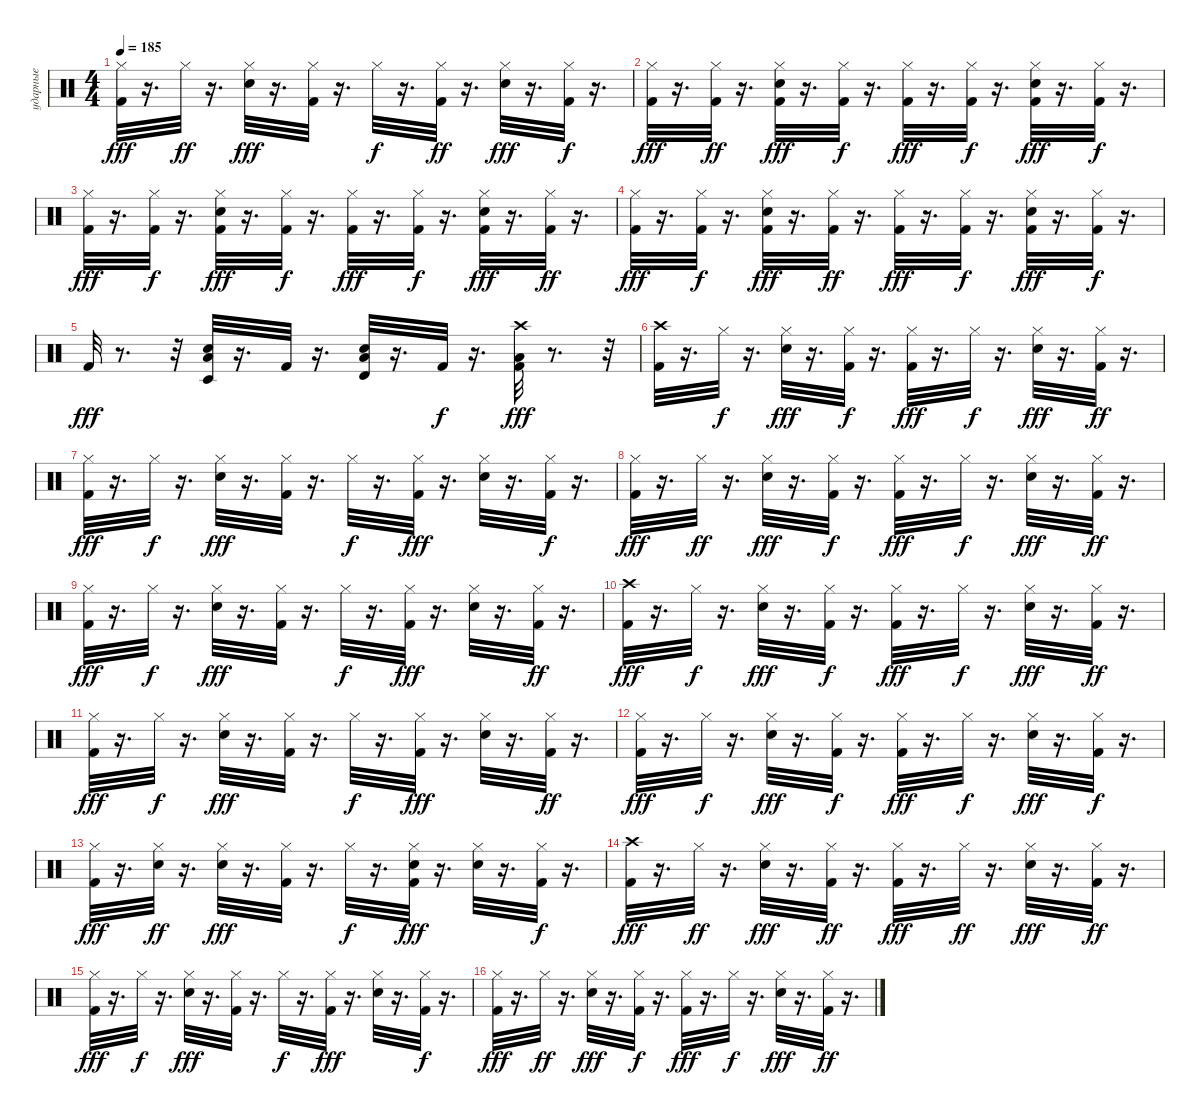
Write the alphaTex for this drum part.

\track ("ударные" "ударные") {instrument percussion}
\staff {score}
\articulation defaults
\ts (4 4)
\tempo 185
\clef neutral
\ks c
("Hi-Hat (closed)" "Kick (hit) 2").32{dy fff} r.16{d} "Hi-Hat (closed)".32{dy ff} r.16{d} ("Hi-Hat (closed)" "Electric Snare (hit)").32{dy fff} r.16{d} ("Hi-Hat (closed)" "Kick (hit) 2").32 r.16{d} "Hi-Hat (closed)".32{dy f} r.16{d} ("Kick (hit) 2" "Hi-Hat (closed)").32{dy ff} r.16{d} ("Hi-Hat (closed)" "Electric Snare (hit)").32{dy fff} r.16{d} ("Hi-Hat (closed)" "Kick (hit) 2").32{dy f} r.16{d} |
("Hi-Hat (closed)" "Kick (hit) 2").32{dy fff} r.16{d} ("Kick (hit) 2" "Hi-Hat (closed)").32{dy ff} r.16{d} ("Kick (hit) 2" "Hi-Hat (closed)" "Electric Snare (hit)").32{dy fff} r.16{d} ("Kick (hit) 2" "Hi-Hat (closed)").32{dy f} r.16{d} ("Hi-Hat (closed)" "Kick (hit) 2").32{dy fff} r.16{d} ("Kick (hit) 2" "Hi-Hat (closed)").32{dy f} r.16{d} ("Kick (hit) 2" "Hi-Hat (closed)" "Electric Snare (hit)").32{dy fff} r.16{d} ("Hi-Hat (closed)" "Kick (hit) 2").32{dy f} r.16{d} |
("Hi-Hat (closed)" "Kick (hit) 2").32{dy fff} r.16{d} ("Kick (hit) 2" "Hi-Hat (closed)").32{dy f} r.16{d} ("Kick (hit) 2" "Hi-Hat (closed)" "Electric Snare (hit)").32{dy fff} r.16{d} ("Kick (hit) 2" "Hi-Hat (closed)").32{dy f} r.16{d} ("Hi-Hat (closed)" "Kick (hit) 2").32{dy fff} r.16{d} ("Kick (hit) 2" "Hi-Hat (closed)").32{dy f} r.16{d} ("Kick (hit) 2" "Hi-Hat (closed)" "Electric Snare (hit)").32{dy fff} r.16{d} ("Hi-Hat (closed)" "Kick (hit) 2").32{dy ff} r.16{d} |
("Hi-Hat (closed)" "Kick (hit) 2").32{dy fff} r.16{d} ("Kick (hit) 2" "Hi-Hat (closed)").32{dy f} r.16{d} ("Kick (hit) 2" "Hi-Hat (closed)" "Electric Snare (hit)").32{dy fff} r.16{d} ("Kick (hit) 2" "Hi-Hat (closed)").32{dy ff} r.16{d} ("Hi-Hat (closed)" "Kick (hit) 2").32{dy fff} r.16{d} ("Kick (hit) 2" "Hi-Hat (closed)").32{dy f} r.16{d} ("Kick (hit) 2" "Hi-Hat (closed)" "Electric Snare (hit)").32{dy fff} r.16{d} ("Hi-Hat (closed)" "Kick (hit) 2").32{dy f} r.16{d} |
"Kick (hit) 2".32{dy fff} r.8{d} r.32 ("Timbale low (hit)" "Low Floor Tom (hit)" "Electric Snare (hit)").32 r.16{d} "Kick (hit) 2".32 r.16{d} ("Timbale high (hit)" "Low Floor Tom (hit)" "Electric Snare (hit)").32 r.16{d} "Kick (hit) 2".32{dy f} r.16{d} ("Low Floor Tom (hit)" "Crash high (hit)" "Kick (hit) 2").32{dy fff} r.8{d} r.32 |
("Crash high (hit)" "Kick (hit) 2").32 r.16{d} "Hi-Hat (closed)".32{dy f} r.16{d} ("Hi-Hat (closed)" "Electric Snare (hit)").32{dy fff} r.16{d} ("Hi-Hat (closed)" "Kick (hit) 2").32{dy f} r.16{d} ("Hi-Hat (closed)" "Kick (hit) 2").32{dy fff} r.16{d} "Hi-Hat (closed)".32{dy f} r.16{d} ("Hi-Hat (closed)" "Electric Snare (hit)").32{dy fff} r.16{d} ("Hi-Hat (closed)" "Kick (hit) 2").32{dy ff} r.16{d} |
("Hi-Hat (closed)" "Kick (hit) 2").32{dy fff} r.16{d} "Hi-Hat (closed)".32{dy f} r.16{d} ("Hi-Hat (closed)" "Electric Snare (hit)").32{dy fff} r.16{d} ("Hi-Hat (closed)" "Kick (hit) 2").32 r.16{d} "Hi-Hat (closed)".32{dy f} r.16{d} ("Kick (hit) 2" "Hi-Hat (closed)").32{dy fff} r.16{d} ("Hi-Hat (closed)" "Electric Snare (hit)").32 r.16{d} ("Hi-Hat (closed)" "Kick (hit) 2").32{dy f} r.16{d} |
("Hi-Hat (closed)" "Kick (hit) 2").32{dy fff} r.16{d} "Hi-Hat (closed)".32{dy ff} r.16{d} ("Hi-Hat (closed)" "Electric Snare (hit)").32{dy fff} r.16{d} ("Hi-Hat (closed)" "Kick (hit) 2").32{dy f} r.16{d} ("Hi-Hat (closed)" "Kick (hit) 2").32{dy fff} r.16{d} "Hi-Hat (closed)".32{dy f} r.16{d} ("Hi-Hat (closed)" "Electric Snare (hit)").32{dy fff} r.16{d} ("Hi-Hat (closed)" "Kick (hit) 2").32{dy ff} r.16{d} |
("Hi-Hat (closed)" "Kick (hit) 2").32{dy fff} r.16{d} "Hi-Hat (closed)".32{dy f} r.16{d} ("Hi-Hat (closed)" "Electric Snare (hit)").32{dy fff} r.16{d} ("Hi-Hat (closed)" "Kick (hit) 2").32 r.16{d} "Hi-Hat (closed)".32{dy f} r.16{d} ("Kick (hit) 2" "Hi-Hat (closed)").32{dy fff} r.16{d} ("Hi-Hat (closed)" "Electric Snare (hit)").32 r.16{d} ("Hi-Hat (closed)" "Kick (hit) 2").32{dy ff} r.16{d} |
("Crash high (hit)" "Kick (hit) 2").32{dy fff} r.16{d} "Hi-Hat (closed)".32{dy f} r.16{d} ("Hi-Hat (closed)" "Electric Snare (hit)").32{dy fff} r.16{d} ("Hi-Hat (closed)" "Kick (hit) 2").32{dy f} r.16{d} ("Hi-Hat (closed)" "Kick (hit) 2").32{dy fff} r.16{d} "Hi-Hat (closed)".32{dy f} r.16{d} ("Hi-Hat (closed)" "Electric Snare (hit)").32{dy fff} r.16{d} ("Hi-Hat (closed)" "Kick (hit) 2").32{dy ff} r.16{d} |
("Hi-Hat (closed)" "Kick (hit) 2").32{dy fff} r.16{d} "Hi-Hat (closed)".32{dy f} r.16{d} ("Hi-Hat (closed)" "Electric Snare (hit)").32{dy fff} r.16{d} ("Hi-Hat (closed)" "Kick (hit) 2").32 r.16{d} "Hi-Hat (closed)".32{dy f} r.16{d} ("Kick (hit) 2" "Hi-Hat (closed)").32{dy fff} r.16{d} ("Hi-Hat (closed)" "Electric Snare (hit)").32 r.16{d} ("Hi-Hat (closed)" "Kick (hit) 2").32{dy ff} r.16{d} |
("Hi-Hat (closed)" "Kick (hit) 2").32{dy fff} r.16{d} "Hi-Hat (closed)".32{dy f} r.16{d} ("Hi-Hat (closed)" "Electric Snare (hit)").32{dy fff} r.16{d} ("Hi-Hat (closed)" "Kick (hit) 2").32{dy f} r.16{d} ("Hi-Hat (closed)" "Kick (hit) 2").32{dy fff} r.16{d} "Hi-Hat (closed)".32{dy f} r.16{d} ("Hi-Hat (closed)" "Electric Snare (hit)").32{dy fff} r.16{d} ("Hi-Hat (closed)" "Kick (hit) 2").32{dy f} r.16{d} |
("Hi-Hat (closed)" "Kick (hit) 2").32{dy fff} r.16{d} ("Electric Snare (hit)" "Hi-Hat (closed)").32{dy ff} r.16{d} ("Hi-Hat (closed)" "Electric Snare (hit)").32{dy fff} r.16{d} ("Hi-Hat (closed)" "Kick (hit) 2").32 r.16{d} "Hi-Hat (closed)".32{dy f} r.16{d} ("Electric Snare (hit)" "Kick (hit) 2" "Hi-Hat (closed)").32{dy fff} r.16{d} ("Hi-Hat (closed)" "Electric Snare (hit)").32 r.16{d} ("Hi-Hat (closed)" "Kick (hit) 2").32{dy f} r.16{d} |
("Crash high (hit)" "Kick (hit) 2").32{dy fff} r.16{d} "Hi-Hat (closed)".32{dy ff} r.16{d} ("Hi-Hat (closed)" "Electric Snare (hit)").32{dy fff} r.16{d} ("Hi-Hat (closed)" "Kick (hit) 2").32{dy ff} r.16{d} ("Hi-Hat (closed)" "Kick (hit) 2").32{dy fff} r.16{d} "Hi-Hat (closed)".32{dy ff} r.16{d} ("Hi-Hat (closed)" "Electric Snare (hit)").32{dy fff} r.16{d} ("Hi-Hat (closed)" "Kick (hit) 2").32{dy ff} r.16{d} |
("Hi-Hat (closed)" "Kick (hit) 2").32{dy fff} r.16{d} "Hi-Hat (closed)".32{dy f} r.16{d} ("Hi-Hat (closed)" "Electric Snare (hit)").32{dy fff} r.16{d} ("Hi-Hat (closed)" "Kick (hit) 2").32 r.16{d} "Hi-Hat (closed)".32{dy f} r.16{d} ("Kick (hit) 2" "Hi-Hat (closed)").32{dy fff} r.16{d} ("Hi-Hat (closed)" "Electric Snare (hit)").32 r.16{d} ("Hi-Hat (closed)" "Kick (hit) 2").32{dy f} r.16{d} |
("Hi-Hat (closed)" "Kick (hit) 2").32{dy fff} r.16{d} "Hi-Hat (closed)".32{dy ff} r.16{d} ("Hi-Hat (closed)" "Electric Snare (hit)").32{dy fff} r.16{d} ("Hi-Hat (closed)" "Kick (hit) 2").32{dy f} r.16{d} ("Hi-Hat (closed)" "Kick (hit) 2").32{dy fff} r.16{d} "Hi-Hat (closed)".32{dy f} r.16{d} ("Hi-Hat (closed)" "Electric Snare (hit)").32{dy fff} r.16{d} ("Hi-Hat (closed)" "Kick (hit) 2").32{dy ff} r.16{d}
